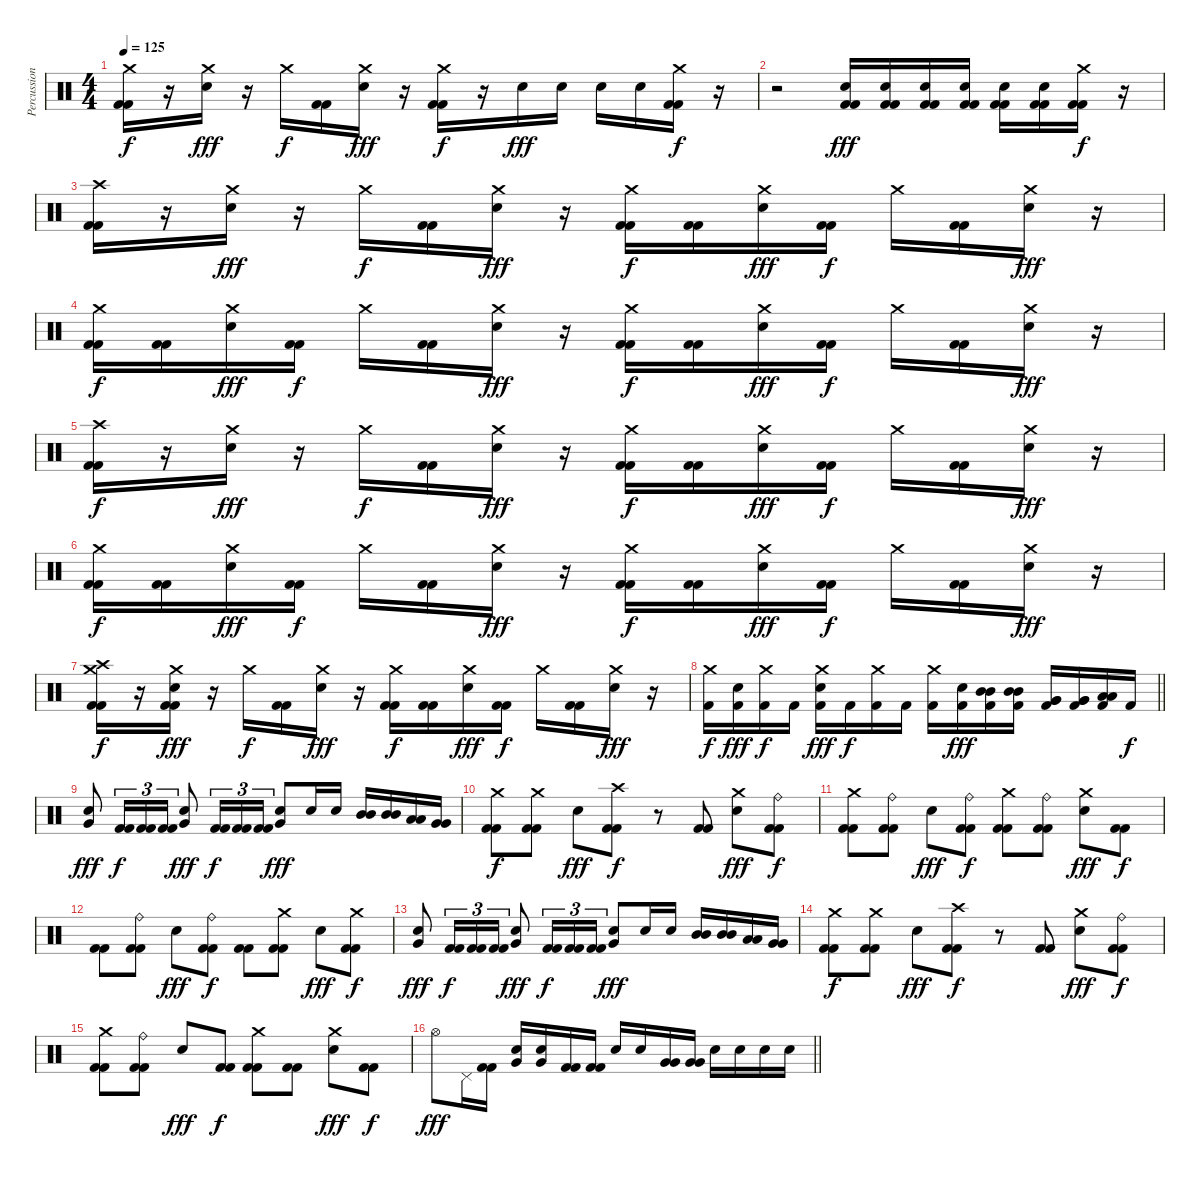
\track ("Percussion" "Percussion") {solo instrument percussion}
\staff {score}
\articulation defaults
\ts (4 4)
\tempo 125
\clef neutral
\ks c
("Crash medium (hit)" "Kick (hit) 2" "Kick (hit) 2").16{dy f} r.16 ("Crash medium (hit)" "Electric Snare (hit)").16{dy fff} r.16 "Crash medium (hit)".16{dy f} ("Kick (hit) 2" "Kick (hit) 2").16 ("Crash medium (hit)" "Electric Snare (hit)").16{dy fff} r.16 ("Crash medium (hit)" "Kick (hit) 2" "Kick (hit) 2").16{dy f} r.16 "Electric Snare (hit)".16{dy fff} "Electric Snare (hit)".16 "Electric Snare (hit)".16 "Electric Snare (hit)".16 ("Crash medium (hit)" "Kick (hit) 2" "Kick (hit) 2").16{dy f} r.16 |
r.2 ("Electric Snare (hit)" "Kick (hit) 2" "Kick (hit) 2").16{dy fff} ("Electric Snare (hit)" "Kick (hit) 2" "Kick (hit) 2").16 ("Electric Snare (hit)" "Kick (hit) 2" "Kick (hit) 2").16 ("Electric Snare (hit)" "Kick (hit) 2" "Kick (hit) 2").16 ("Electric Snare (hit)" "Kick (hit) 2" "Kick (hit) 2").16 ("Electric Snare (hit)" "Kick (hit) 2" "Kick (hit) 2").16 ("Crash medium (hit)" "Kick (hit) 2" "Kick (hit) 2").16{dy f} r.16 |
("Crash high (hit)" "Kick (hit) 2" "Kick (hit) 2").16 r.16 ("Crash medium (hit)" "Electric Snare (hit)").16{dy fff} r.16 "Crash medium (hit)".16{dy f} ("Kick (hit) 2" "Kick (hit) 2").16 ("Crash medium (hit)" "Electric Snare (hit)").16{dy fff} r.16 ("Crash medium (hit)" "Kick (hit) 2" "Kick (hit) 2").16{dy f} ("Kick (hit) 2" "Kick (hit) 2").16 ("Crash medium (hit)" "Electric Snare (hit)").16{dy fff} ("Kick (hit) 2" "Kick (hit) 2").16{dy f} "Crash medium (hit)".16 ("Kick (hit) 2" "Kick (hit) 2").16 ("Crash medium (hit)" "Electric Snare (hit)").16{dy fff} r.16 |
("Crash medium (hit)" "Kick (hit) 2" "Kick (hit) 2").16{dy f} ("Kick (hit) 2" "Kick (hit) 2").16 ("Crash medium (hit)" "Electric Snare (hit)").16{dy fff} ("Kick (hit) 2" "Kick (hit) 2").16{dy f} "Crash medium (hit)".16 ("Kick (hit) 2" "Kick (hit) 2").16 ("Crash medium (hit)" "Electric Snare (hit)").16{dy fff} r.16 ("Crash medium (hit)" "Kick (hit) 2" "Kick (hit) 2").16{dy f} ("Kick (hit) 2" "Kick (hit) 2").16 ("Crash medium (hit)" "Electric Snare (hit)").16{dy fff} ("Kick (hit) 2" "Kick (hit) 2").16{dy f} "Crash medium (hit)".16 ("Kick (hit) 2" "Kick (hit) 2").16 ("Crash medium (hit)" "Electric Snare (hit)").16{dy fff} r.16 |
("Crash high (hit)" "Kick (hit) 2" "Kick (hit) 2").16{dy f} r.16 ("Crash medium (hit)" "Electric Snare (hit)").16{dy fff} r.16 "Crash medium (hit)".16{dy f} ("Kick (hit) 2" "Kick (hit) 2").16 ("Crash medium (hit)" "Electric Snare (hit)").16{dy fff} r.16 ("Crash medium (hit)" "Kick (hit) 2" "Kick (hit) 2").16{dy f} ("Kick (hit) 2" "Kick (hit) 2").16 ("Crash medium (hit)" "Electric Snare (hit)").16{dy fff} ("Kick (hit) 2" "Kick (hit) 2").16{dy f} "Crash medium (hit)".16 ("Kick (hit) 2" "Kick (hit) 2").16 ("Crash medium (hit)" "Electric Snare (hit)").16{dy fff} r.16 |
("Crash medium (hit)" "Kick (hit) 2" "Kick (hit) 2").16{dy f} ("Kick (hit) 2" "Kick (hit) 2").16 ("Crash medium (hit)" "Electric Snare (hit)").16{dy fff} ("Kick (hit) 2" "Kick (hit) 2").16{dy f} "Crash medium (hit)".16 ("Kick (hit) 2" "Kick (hit) 2").16 ("Crash medium (hit)" "Electric Snare (hit)").16{dy fff} r.16 ("Crash medium (hit)" "Kick (hit) 2" "Kick (hit) 2").16{dy f} ("Kick (hit) 2" "Kick (hit) 2").16 ("Crash medium (hit)" "Electric Snare (hit)").16{dy fff} ("Kick (hit) 2" "Kick (hit) 2").16{dy f} "Crash medium (hit)".16 ("Kick (hit) 2" "Kick (hit) 2").16 ("Crash medium (hit)" "Electric Snare (hit)").16{dy fff} r.16 |
("Crash high (hit)" "Crash medium (hit)" "Kick (hit) 2" "Kick (hit) 2").16{dy f} r.16 ("Crash medium (hit)" "Electric Snare (hit)" "Kick (hit) 2" "Kick (hit) 2").16{dy fff} r.16 "Crash medium (hit)".16{dy f} ("Kick (hit) 2" "Kick (hit) 2").16 ("Crash medium (hit)" "Electric Snare (hit)").16{dy fff} r.16 ("Crash medium (hit)" "Kick (hit) 2" "Kick (hit) 2").16{dy f} ("Kick (hit) 2" "Kick (hit) 2").16 ("Crash medium (hit)" "Electric Snare (hit)").16{dy fff} ("Kick (hit) 2" "Kick (hit) 2").16{dy f} "Crash medium (hit)".16 ("Kick (hit) 2" "Kick (hit) 2").16 ("Crash medium (hit)" "Electric Snare (hit)").16{dy fff} r.16 |
\barLineRight lightlight
("Crash medium (hit)" "Kick (hit) 2").16{dy f} ("Electric Snare (hit)" "Kick (hit) 2").16{dy fff} ("Crash medium (hit)" "Kick (hit) 2").16{dy f} "Kick (hit) 2".16 ("Crash medium (hit)" "Electric Snare (hit)" "Kick (hit) 2").16{dy fff} "Kick (hit) 2".16{dy f} ("Crash medium (hit)" "Kick (hit) 2").16 "Kick (hit) 2".16 ("Crash medium (hit)" "Kick (hit) 2").16 ("Electric Snare (hit)" "Kick (hit) 2").16{dy fff} ("Mid Tom (hit)" "Mid Tom (hit)" "Kick (hit) 2").16 ("Mid Tom (hit)" "Mid Tom (hit)" "Kick (hit) 2").16 ("Very Low Tom (hit)" "Very Low Tom (hit)" "Kick (hit) 2").16 ("Very Low Tom (hit)" "Very Low Tom (hit)" "Kick (hit) 2").16 ("Low Floor Tom (hit)" "Low Floor Tom (hit)" "Kick (hit) 2").16 "Kick (hit) 2".16{dy f} |
("Electric Snare (hit)" "Very Low Tom (hit)").8{dy fff} ("Kick (hit) 2" "Kick (hit) 2").16{tu (3 2) dy f} ("Kick (hit) 2" "Kick (hit) 2").16{tu (3 2)} ("Kick (hit) 2" "Kick (hit) 2").16{tu (3 2)} ("Electric Snare (hit)" "Very Low Tom (hit)").8{dy fff} ("Kick (hit) 2" "Kick (hit) 2").16{tu (3 2) dy f} ("Kick (hit) 2" "Kick (hit) 2").16{tu (3 2)} ("Kick (hit) 2" "Kick (hit) 2").16{tu (3 2)} ("Electric Snare (hit)" "Very Low Tom (hit)").8{dy fff} "Electric Snare (hit)".16 "Electric Snare (hit)".16 ("Mid Tom (hit)" "Mid Tom (hit)").16 ("Mid Tom (hit)" "Mid Tom (hit)").16 ("Low Tom (hit)" "Low Tom (hit)").16 ("Very Low Tom (hit)" "Very Low Tom (hit)").16 |
("Crash medium (hit)" "Kick (hit) 2" "Kick (hit) 2").8{dy f} ("Crash medium (hit)" "Kick (hit) 2" "Kick (hit) 2").8 "Electric Snare (hit)".8{dy fff} ("Crash high (hit)" "Kick (hit) 2" "Kick (hit) 2").8{dy f} r.8 ("Kick (hit) 2" "Kick (hit) 2").8 ("Crash medium (hit)" "Electric Snare (hit)").8{dy fff} ("Ride (bell)" "Kick (hit) 2" "Kick (hit) 2").8{dy f} |
("Crash medium (hit)" "Kick (hit) 2" "Kick (hit) 2").8 ("Ride (bell)" "Kick (hit) 2" "Kick (hit) 2").8 "Electric Snare (hit)".8{dy fff} ("Ride (bell)" "Kick (hit) 2" "Kick (hit) 2").8{dy f} ("Crash medium (hit)" "Kick (hit) 2" "Kick (hit) 2").8 ("Ride (bell)" "Kick (hit) 2" "Kick (hit) 2").8 ("Crash medium (hit)" "Electric Snare (hit)").8{dy fff} ("Kick (hit) 2" "Kick (hit) 2").8{dy f} |
("Kick (hit) 2" "Kick (hit) 2").8 ("Ride (bell)" "Kick (hit) 2" "Kick (hit) 2").8 "Electric Snare (hit)".8{dy fff} ("Ride (bell)" "Kick (hit) 2" "Kick (hit) 2").8{dy f} ("Kick (hit) 2" "Kick (hit) 2").8 ("Crash medium (hit)" "Kick (hit) 2" "Kick (hit) 2").8 "Electric Snare (hit)".8{dy fff} ("Crash medium (hit)" "Kick (hit) 2" "Kick (hit) 2").8{dy f} |
("Electric Snare (hit)" "Very Low Tom (hit)").8{dy fff} ("Kick (hit) 2" "Kick (hit) 2").16{tu (3 2) dy f} ("Kick (hit) 2" "Kick (hit) 2").16{tu (3 2)} ("Kick (hit) 2" "Kick (hit) 2").16{tu (3 2)} ("Electric Snare (hit)" "Very Low Tom (hit)").8{dy fff} ("Kick (hit) 2" "Kick (hit) 2").16{tu (3 2) dy f} ("Kick (hit) 2" "Kick (hit) 2").16{tu (3 2)} ("Kick (hit) 2" "Kick (hit) 2").16{tu (3 2)} ("Electric Snare (hit)" "Very Low Tom (hit)").8{dy fff} "Electric Snare (hit)".16 "Electric Snare (hit)".16 ("Mid Tom (hit)" "Mid Tom (hit)").16 ("Mid Tom (hit)" "Mid Tom (hit)").16 ("Low Tom (hit)" "Low Tom (hit)").16 ("Very Low Tom (hit)" "Very Low Tom (hit)").16 |
("Crash medium (hit)" "Kick (hit) 2" "Kick (hit) 2").8{dy f} ("Crash medium (hit)" "Kick (hit) 2" "Kick (hit) 2").8 "Electric Snare (hit)".8{dy fff} ("Crash high (hit)" "Kick (hit) 2" "Kick (hit) 2").8{dy f} r.8 ("Kick (hit) 2" "Kick (hit) 2").8 ("Crash medium (hit)" "Electric Snare (hit)").8{dy fff} ("Ride (bell)" "Kick (hit) 2" "Kick (hit) 2").8{dy f} |
("Crash medium (hit)" "Kick (hit) 2" "Kick (hit) 2").8 ("Ride (bell)" "Kick (hit) 2" "Kick (hit) 2").8 "Electric Snare (hit)".8{dy fff} ("Kick (hit) 2" "Kick (hit) 2").8{dy f} ("Crash medium (hit)" "Kick (hit) 2" "Kick (hit) 2").8 ("Kick (hit) 2" "Kick (hit) 2").8 ("Crash medium (hit)" "Electric Snare (hit)").8{dy fff} ("Kick (hit) 2" "Kick (hit) 2").8{dy f} |
\barLineRight lightlight "Hi-Hat (open)".8{dy fff} "Pedal Hi-Hat (hit)".16
("Kick (hit) 2" "Kick (hit) 2").16 ("Very Low Tom (hit)" "Electric Snare (hit)").16 ("Very Low Tom (hit)" "Electric Snare (hit)").16 ("Kick (hit) 2" "Kick (hit) 2").16 ("Kick (hit) 2" "Kick (hit) 2").16 "Electric Snare (hit)".16 "Electric Snare (hit)".16 ("Very Low Tom (hit)" "Very Low Tom (hit)").16 ("Very Low Tom (hit)" "Very Low Tom (hit)").16 "Electric Snare (hit)".16 "Electric Snare (hit)".16 "Electric Snare (hit)".16 "Electric Snare (hit)".16
